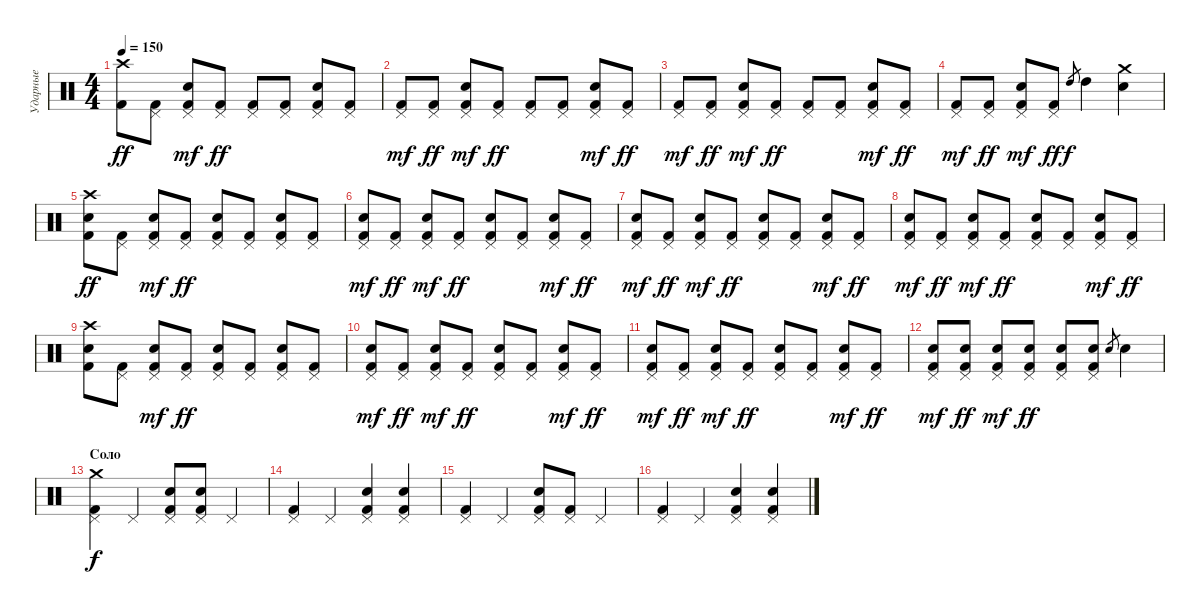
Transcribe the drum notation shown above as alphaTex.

\track ("Ударные" "Ударные") {instrument percussion}
\staff {score}
\articulation defaults
\ts (4 4)
\tempo 150
\clef neutral
\ks c
("Crash high (hit)" "Kick (hit) 2").8{dy ff} ("Kick (hit) 2" "Pedal Hi-Hat (hit)").8 ("Kick (hit) 2" "Electric Snare (hit)" "Pedal Hi-Hat (hit)").8{dy mf} ("Kick (hit) 2" "Pedal Hi-Hat (hit)").8{dy ff} ("Pedal Hi-Hat (hit)" "Kick (hit) 2").8 ("Kick (hit) 2" "Pedal Hi-Hat (hit)").8 ("Kick (hit) 2" "Pedal Hi-Hat (hit)" "Electric Snare (hit)").8 ("Kick (hit) 2" "Pedal Hi-Hat (hit)").8 |
("Kick (hit) 2" "Pedal Hi-Hat (hit)").8{dy mf} ("Kick (hit) 2" "Pedal Hi-Hat (hit)").8{dy ff} ("Electric Snare (hit)" "Kick (hit) 2" "Pedal Hi-Hat (hit)").8{dy mf} ("Kick (hit) 2" "Pedal Hi-Hat (hit)").8{dy ff} ("Pedal Hi-Hat (hit)" "Kick (hit) 2").8 ("Kick (hit) 2" "Pedal Hi-Hat (hit)").8 ("Electric Snare (hit)" "Kick (hit) 2" "Pedal Hi-Hat (hit)").8{dy mf} ("Kick (hit) 2" "Pedal Hi-Hat (hit)").8{dy ff} |
("Kick (hit) 2" "Pedal Hi-Hat (hit)").8{dy mf} ("Kick (hit) 2" "Pedal Hi-Hat (hit)").8{dy ff} ("Electric Snare (hit)" "Kick (hit) 2" "Pedal Hi-Hat (hit)").8{dy mf} ("Kick (hit) 2" "Pedal Hi-Hat (hit)").8{dy ff} ("Pedal Hi-Hat (hit)" "Kick (hit) 2").8 ("Kick (hit) 2" "Pedal Hi-Hat (hit)").8 ("Electric Snare (hit)" "Kick (hit) 2" "Pedal Hi-Hat (hit)").8{dy mf} ("Kick (hit) 2" "Pedal Hi-Hat (hit)").8{dy ff} |
("Kick (hit) 2" "Pedal Hi-Hat (hit)").8{dy mf} ("Kick (hit) 2" "Pedal Hi-Hat (hit)").8{dy ff} ("Electric Snare (hit)" "Kick (hit) 2" "Pedal Hi-Hat (hit)").8{dy mf} ("Kick (hit) 2" "Pedal Hi-Hat (hit)").8{dy ff} "High Tom (hit)".8{gr dy f} "High Tom (hit)".4 ("Crash medium (hit)" "Electric Snare (hit)").4 |
("Crash high (hit)" "Kick (hit) 2" "Electric Snare (hit)").8{dy ff} ("Kick (hit) 2" "Pedal Hi-Hat (hit)").8 ("Kick (hit) 2" "Electric Snare (hit)" "Pedal Hi-Hat (hit)").8{dy mf} ("Kick (hit) 2" "Pedal Hi-Hat (hit)").8{dy ff} ("Pedal Hi-Hat (hit)" "Kick (hit) 2" "Electric Snare (hit)").8 ("Kick (hit) 2" "Pedal Hi-Hat (hit)").8 ("Kick (hit) 2" "Pedal Hi-Hat (hit)" "Electric Snare (hit)").8 ("Kick (hit) 2" "Pedal Hi-Hat (hit)").8 |
("Kick (hit) 2" "Pedal Hi-Hat (hit)" "Electric Snare (hit)").8{dy mf} ("Kick (hit) 2" "Pedal Hi-Hat (hit)").8{dy ff} ("Electric Snare (hit)" "Kick (hit) 2" "Pedal Hi-Hat (hit)").8{dy mf} ("Kick (hit) 2" "Pedal Hi-Hat (hit)").8{dy ff} ("Pedal Hi-Hat (hit)" "Kick (hit) 2" "Electric Snare (hit)").8 ("Kick (hit) 2" "Pedal Hi-Hat (hit)").8 ("Electric Snare (hit)" "Kick (hit) 2" "Pedal Hi-Hat (hit)").8{dy mf} ("Kick (hit) 2" "Pedal Hi-Hat (hit)").8{dy ff} |
("Kick (hit) 2" "Pedal Hi-Hat (hit)" "Electric Snare (hit)").8{dy mf} ("Kick (hit) 2" "Pedal Hi-Hat (hit)").8{dy ff} ("Electric Snare (hit)" "Kick (hit) 2" "Pedal Hi-Hat (hit)").8{dy mf} ("Kick (hit) 2" "Pedal Hi-Hat (hit)").8{dy ff} ("Pedal Hi-Hat (hit)" "Kick (hit) 2" "Electric Snare (hit)").8 ("Kick (hit) 2" "Pedal Hi-Hat (hit)").8 ("Electric Snare (hit)" "Kick (hit) 2" "Pedal Hi-Hat (hit)").8{dy mf} ("Kick (hit) 2" "Pedal Hi-Hat (hit)").8{dy ff} |
("Kick (hit) 2" "Pedal Hi-Hat (hit)" "Electric Snare (hit)").8{dy mf} ("Kick (hit) 2" "Pedal Hi-Hat (hit)").8{dy ff} ("Electric Snare (hit)" "Kick (hit) 2" "Pedal Hi-Hat (hit)").8{dy mf} ("Kick (hit) 2" "Pedal Hi-Hat (hit)").8{dy ff} ("Pedal Hi-Hat (hit)" "Kick (hit) 2" "Electric Snare (hit)").8 ("Kick (hit) 2" "Pedal Hi-Hat (hit)").8 ("Electric Snare (hit)" "Kick (hit) 2" "Pedal Hi-Hat (hit)").8{dy mf} ("Kick (hit) 2" "Pedal Hi-Hat (hit)").8{dy ff} |
("Crash high (hit)" "Kick (hit) 2" "Electric Snare (hit)").8 ("Kick (hit) 2" "Pedal Hi-Hat (hit)").8 ("Kick (hit) 2" "Electric Snare (hit)" "Pedal Hi-Hat (hit)").8{dy mf} ("Kick (hit) 2" "Pedal Hi-Hat (hit)").8{dy ff} ("Pedal Hi-Hat (hit)" "Kick (hit) 2" "Electric Snare (hit)").8 ("Kick (hit) 2" "Pedal Hi-Hat (hit)").8 ("Kick (hit) 2" "Pedal Hi-Hat (hit)" "Electric Snare (hit)").8 ("Kick (hit) 2" "Pedal Hi-Hat (hit)").8 |
("Kick (hit) 2" "Pedal Hi-Hat (hit)" "Electric Snare (hit)").8{dy mf} ("Kick (hit) 2" "Pedal Hi-Hat (hit)").8{dy ff} ("Electric Snare (hit)" "Kick (hit) 2" "Pedal Hi-Hat (hit)").8{dy mf} ("Kick (hit) 2" "Pedal Hi-Hat (hit)").8{dy ff} ("Pedal Hi-Hat (hit)" "Kick (hit) 2" "Electric Snare (hit)").8 ("Kick (hit) 2" "Pedal Hi-Hat (hit)").8 ("Electric Snare (hit)" "Kick (hit) 2" "Pedal Hi-Hat (hit)").8{dy mf} ("Kick (hit) 2" "Pedal Hi-Hat (hit)").8{dy ff} |
("Kick (hit) 2" "Pedal Hi-Hat (hit)" "Electric Snare (hit)").8{dy mf} ("Kick (hit) 2" "Pedal Hi-Hat (hit)").8{dy ff} ("Electric Snare (hit)" "Kick (hit) 2" "Pedal Hi-Hat (hit)").8{dy mf} ("Kick (hit) 2" "Pedal Hi-Hat (hit)").8{dy ff} ("Pedal Hi-Hat (hit)" "Kick (hit) 2" "Electric Snare (hit)").8 ("Kick (hit) 2" "Pedal Hi-Hat (hit)").8 ("Electric Snare (hit)" "Kick (hit) 2" "Pedal Hi-Hat (hit)").8{dy mf} ("Kick (hit) 2" "Pedal Hi-Hat (hit)").8{dy ff} |
("Kick (hit) 2" "Pedal Hi-Hat (hit)" "Electric Snare (hit)").8{dy mf} ("Kick (hit) 2" "Pedal Hi-Hat (hit)" "Electric Snare (hit)").8{dy ff} ("Electric Snare (hit)" "Kick (hit) 2" "Pedal Hi-Hat (hit)").8{dy mf} ("Kick (hit) 2" "Pedal Hi-Hat (hit)" "Electric Snare (hit)").8{dy ff} ("Pedal Hi-Hat (hit)" "Kick (hit) 2" "Electric Snare (hit)").8 ("Kick (hit) 2" "Pedal Hi-Hat (hit)" "Electric Snare (hit)").8 "Electric Snare (hit)".8{gr} "Electric Snare (hit)".4 |
\section ("" "Соло")
("Pedal Hi-Hat (hit)" "Crash medium (hit)" "Kick (hit) 2").4{dy f} "Pedal Hi-Hat (hit)".4 ("Pedal Hi-Hat (hit)" "Electric Snare (hit)" "Kick (hit) 2").8 ("Pedal Hi-Hat (hit)" "Electric Snare (hit)" "Kick (hit) 2").8 "Pedal Hi-Hat (hit)".4 |
("Pedal Hi-Hat (hit)" "Kick (hit) 2").4 "Pedal Hi-Hat (hit)".4 ("Pedal Hi-Hat (hit)" "Electric Snare (hit)" "Kick (hit) 2").4 ("Pedal Hi-Hat (hit)" "Electric Snare (hit)" "Kick (hit) 2").4 |
("Pedal Hi-Hat (hit)" "Kick (hit) 2").4 "Pedal Hi-Hat (hit)".4 ("Pedal Hi-Hat (hit)" "Electric Snare (hit)" "Kick (hit) 2").8 ("Pedal Hi-Hat (hit)" "Kick (hit) 2").8 "Pedal Hi-Hat (hit)".4 |
("Pedal Hi-Hat (hit)" "Kick (hit) 2").4 "Pedal Hi-Hat (hit)".4 ("Pedal Hi-Hat (hit)" "Electric Snare (hit)" "Kick (hit) 2").4 ("Pedal Hi-Hat (hit)" "Electric Snare (hit)" "Kick (hit) 2").4
